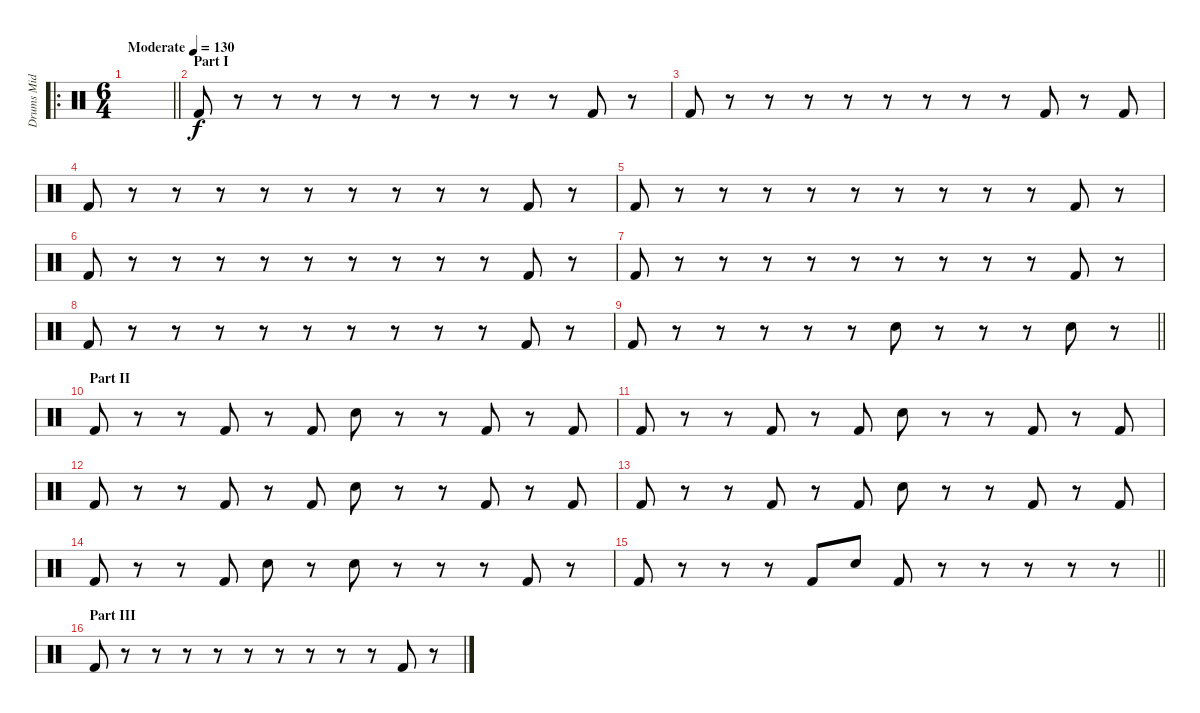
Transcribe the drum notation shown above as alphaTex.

\track ("Drums Mid" "Drums Mid") {instrument percussion}
\staff {score}
\articulation defaults
\ro
\ts (6 4)
\tempo (130 "Moderate")
\clef neutral
\barLineRight lightlight
\ks c
|
\section ("" "Part I")
"Kick (hit) 2".8 r.8 r.8 r.8 r.8 r.8 r.8 r.8 r.8 r.8 "Kick (hit) 2".8 r.8 |
"Kick (hit) 2".8 r.8 r.8 r.8 r.8 r.8 r.8 r.8 r.8 "Kick (hit) 2".8 r.8 "Kick (hit) 2".8 |
"Kick (hit) 2".8 r.8 r.8 r.8 r.8 r.8 r.8 r.8 r.8 r.8 "Kick (hit) 2".8 r.8 |
"Kick (hit) 2".8 r.8 r.8 r.8 r.8 r.8 r.8 r.8 r.8 r.8 "Kick (hit) 2".8 r.8 |
"Kick (hit) 2".8 r.8 r.8 r.8 r.8 r.8 r.8 r.8 r.8 r.8 "Kick (hit) 2".8 r.8 |
"Kick (hit) 2".8 r.8 r.8 r.8 r.8 r.8 r.8 r.8 r.8 r.8 "Kick (hit) 2".8 r.8 |
"Kick (hit) 2".8 r.8 r.8 r.8 r.8 r.8 r.8 r.8 r.8 r.8 "Kick (hit) 2".8 r.8 |
\barLineRight lightlight "Kick (hit) 2".8
r.8 r.8 r.8 r.8 r.8 "Snare (hit) 2".8 r.8 r.8 r.8 "Snare (hit) 2".8 r.8 |
\section ("" "Part II")
"Kick (hit) 2".8 r.8 r.8 "Kick (hit) 2".8 r.8 "Kick (hit) 2".8 "Snare (hit) 2".8 r.8 r.8 "Kick (hit) 2".8 r.8 "Kick (hit) 2".8 |
"Kick (hit) 2".8 r.8 r.8 "Kick (hit) 2".8 r.8 "Kick (hit) 2".8 "Snare (hit) 2".8 r.8 r.8 "Kick (hit) 2".8 r.8 "Kick (hit) 2".8 |
"Kick (hit) 2".8 r.8 r.8 "Kick (hit) 2".8 r.8 "Kick (hit) 2".8 "Snare (hit) 2".8 r.8 r.8 "Kick (hit) 2".8 r.8 "Kick (hit) 2".8 |
"Kick (hit) 2".8 r.8 r.8 "Kick (hit) 2".8 r.8 "Kick (hit) 2".8 "Snare (hit) 2".8 r.8 r.8 "Kick (hit) 2".8 r.8 "Kick (hit) 2".8 |
"Kick (hit) 2".8 r.8 r.8 "Kick (hit) 2".8 "Snare (hit) 2".8 r.8 "Snare (hit) 2".8 r.8 r.8 r.8 "Kick (hit) 2".8 r.8 |
\barLineRight lightlight "Kick (hit) 2".8
r.8 r.8 r.8 "Kick (hit) 2".8 "Snare (hit) 2".8 "Kick (hit) 2".8 r.8 r.8 r.8 r.8 r.8 |
\section ("" "Part III")
"Kick (hit) 2".8 r.8 r.8 r.8 r.8 r.8 r.8 r.8 r.8 r.8 "Kick (hit) 2".8 r.8
